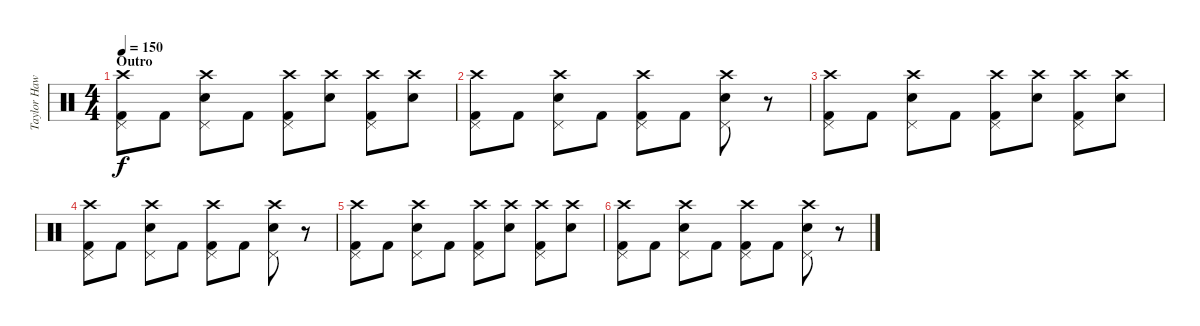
\track ("Taylor Hawkins" "Taylor Haw") {instrument percussion}
\staff {score}
\articulation defaults
\ts (4 4)
\section ("" "Outro")
\tempo 150
\clef neutral
\ks c
("Crash high (hit)" "Pedal Hi-Hat (hit)" "Kick (hit) 2").8{dy f} "Kick (hit) 2".8 ("Crash high (hit)" "Pedal Hi-Hat (hit)" "Snare (hit) 2").8 "Kick (hit) 2".8 ("Crash high (hit)" "Pedal Hi-Hat (hit)" "Kick (hit) 2").8 ("Crash high (hit)" "Snare (hit) 2").8 ("Crash high (hit)" "Pedal Hi-Hat (hit)" "Kick (hit) 2").8 ("Crash high (hit)" "Snare (hit) 2").8 |
("Crash high (hit)" "Pedal Hi-Hat (hit)" "Kick (hit) 2").8 "Kick (hit) 2".8 ("Crash high (hit)" "Pedal Hi-Hat (hit)" "Snare (hit) 2").8 "Kick (hit) 2".8 ("Crash high (hit)" "Pedal Hi-Hat (hit)" "Kick (hit) 2").8 "Kick (hit) 2".8 ("Crash high (hit)" "Pedal Hi-Hat (hit)" "Snare (hit) 2").8 r.8 |
("Crash high (hit)" "Pedal Hi-Hat (hit)" "Kick (hit) 2").8 "Kick (hit) 2".8 ("Crash high (hit)" "Pedal Hi-Hat (hit)" "Snare (hit) 2").8 "Kick (hit) 2".8 ("Crash high (hit)" "Pedal Hi-Hat (hit)" "Kick (hit) 2").8 ("Crash high (hit)" "Snare (hit) 2").8 ("Crash high (hit)" "Pedal Hi-Hat (hit)" "Kick (hit) 2").8 ("Crash high (hit)" "Snare (hit) 2").8 |
("Crash high (hit)" "Pedal Hi-Hat (hit)" "Kick (hit) 2").8 "Kick (hit) 2".8 ("Crash high (hit)" "Pedal Hi-Hat (hit)" "Snare (hit) 2").8 "Kick (hit) 2".8 ("Crash high (hit)" "Pedal Hi-Hat (hit)" "Kick (hit) 2").8 "Kick (hit) 2".8 ("Crash high (hit)" "Pedal Hi-Hat (hit)" "Snare (hit) 2").8 r.8 |
("Crash high (hit)" "Pedal Hi-Hat (hit)" "Kick (hit) 2").8 "Kick (hit) 2".8 ("Crash high (hit)" "Pedal Hi-Hat (hit)" "Snare (hit) 2").8 "Kick (hit) 2".8 ("Crash high (hit)" "Pedal Hi-Hat (hit)" "Kick (hit) 2").8 ("Crash high (hit)" "Snare (hit) 2").8 ("Crash high (hit)" "Pedal Hi-Hat (hit)" "Kick (hit) 2").8 ("Crash high (hit)" "Snare (hit) 2").8 |
("Crash high (hit)" "Pedal Hi-Hat (hit)" "Kick (hit) 2").8 "Kick (hit) 2".8 ("Crash high (hit)" "Pedal Hi-Hat (hit)" "Snare (hit) 2").8 "Kick (hit) 2".8 ("Crash high (hit)" "Pedal Hi-Hat (hit)" "Kick (hit) 2").8 "Kick (hit) 2".8 ("Crash high (hit)" "Pedal Hi-Hat (hit)" "Snare (hit) 2").8 r.8
